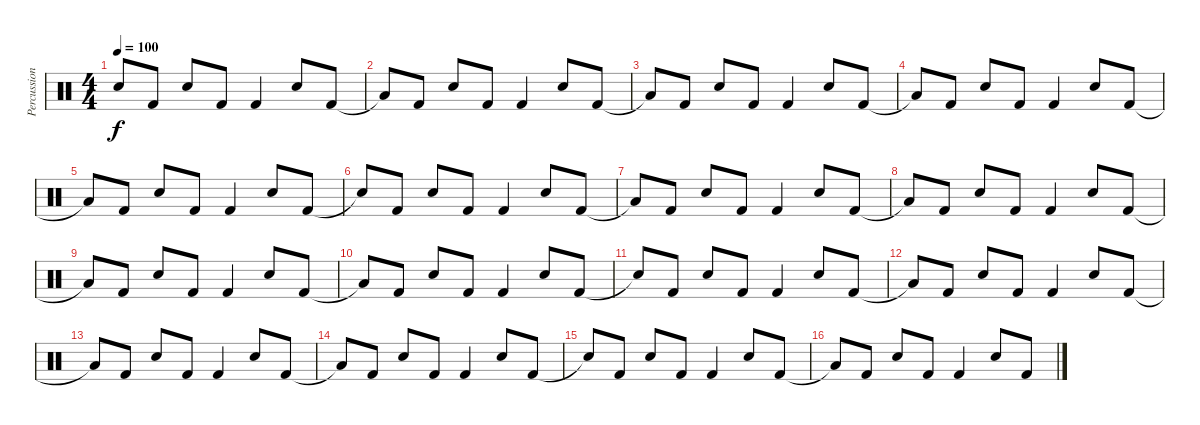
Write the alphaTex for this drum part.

\track ("Percussions" "Percussion") {instrument percussion}
\staff {score}
\articulation defaults
\ts (4 4)
\tempo 100
\clef neutral
\ks c "Snare (hit)"{t}.8{dy f} "Kick (hit) 2".8 "Snare (hit) 2".8 "Kick (hit) 2".8 "Kick (hit) 2".4 "Snare (hit) 2".8 "Kick (hit) 2".8
|
"Low Tom (hit)"{t}.8 "Kick (hit) 2".8 "Snare (hit) 2".8 "Kick (hit) 2".8 "Kick (hit) 2".4 "Snare (hit) 2".8 "Kick (hit) 2".8 |
"Low Tom (hit)"{t}.8 "Kick (hit) 2".8 "Snare (hit) 2".8 "Kick (hit) 2".8 "Kick (hit) 2".4 "Snare (hit) 2".8 "Kick (hit) 2".8 |
"Low Tom (hit)"{t}.8 "Kick (hit) 2".8 "Snare (hit) 2".8 "Kick (hit) 2".8 "Kick (hit) 2".4 "Snare (hit) 2".8 "Kick (hit) 2".8 |
"Low Tom (hit)"{t}.8 "Kick (hit) 2".8 "Snare (hit) 2".8 "Kick (hit) 2".8 "Kick (hit) 2".4 "Snare (hit) 2".8 "Kick (hit) 2".8 |
"Snare (hit)"{t}.8 "Kick (hit) 2".8 "Snare (hit) 2".8 "Kick (hit) 2".8 "Kick (hit) 2".4 "Snare (hit) 2".8 "Kick (hit) 2".8 |
"Low Tom (hit)"{t}.8 "Kick (hit) 2".8 "Snare (hit) 2".8 "Kick (hit) 2".8 "Kick (hit) 2".4 "Snare (hit) 2".8 "Kick (hit) 2".8 |
"Low Tom (hit)"{t}.8 "Kick (hit) 2".8 "Snare (hit) 2".8 "Kick (hit) 2".8 "Kick (hit) 2".4 "Snare (hit) 2".8 "Kick (hit) 2".8 |
"Low Tom (hit)"{t}.8 "Kick (hit) 2".8 "Snare (hit) 2".8 "Kick (hit) 2".8 "Kick (hit) 2".4 "Snare (hit) 2".8 "Kick (hit) 2".8 |
"Low Tom (hit)"{t}.8 "Kick (hit) 2".8 "Snare (hit) 2".8 "Kick (hit) 2".8 "Kick (hit) 2".4 "Snare (hit) 2".8 "Kick (hit) 2".8 |
"Snare (hit)"{t}.8 "Kick (hit) 2".8 "Snare (hit) 2".8 "Kick (hit) 2".8 "Kick (hit) 2".4 "Snare (hit) 2".8 "Kick (hit) 2".8 |
"Low Tom (hit)"{t}.8 "Kick (hit) 2".8 "Snare (hit) 2".8 "Kick (hit) 2".8 "Kick (hit) 2".4 "Snare (hit) 2".8 "Kick (hit) 2".8 |
"Low Tom (hit)"{t}.8 "Kick (hit) 2".8 "Snare (hit) 2".8 "Kick (hit) 2".8 "Kick (hit) 2".4 "Snare (hit) 2".8 "Kick (hit) 2".8 |
"Low Tom (hit)"{t}.8 "Kick (hit) 2".8 "Snare (hit) 2".8 "Kick (hit) 2".8 "Kick (hit) 2".4 "Snare (hit) 2".8 "Kick (hit) 2".8 |
"Snare (hit)"{t}.8 "Kick (hit) 2".8 "Snare (hit) 2".8 "Kick (hit) 2".8 "Kick (hit) 2".4 "Snare (hit) 2".8 "Kick (hit) 2".8 |
"Low Tom (hit)"{t}.8 "Kick (hit) 2".8 "Snare (hit) 2".8 "Kick (hit) 2".8 "Kick (hit) 2".4 "Snare (hit) 2".8 "Kick (hit) 2".8
